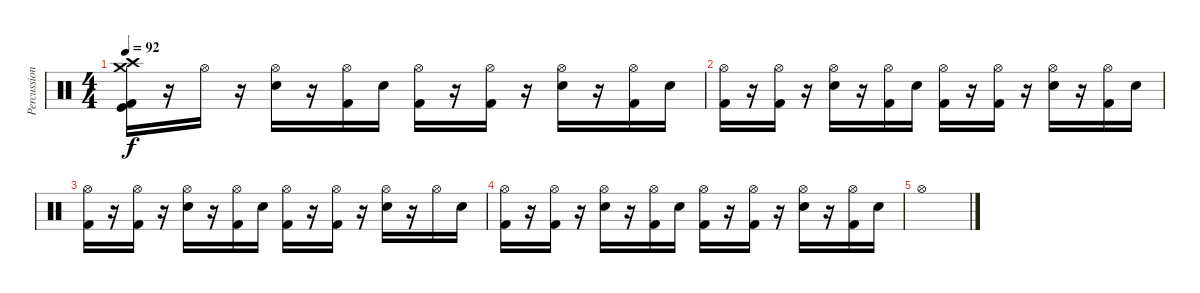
\track ("Percussion" "Percussion") {instrument percussion}
\staff {score}
\articulation defaults
\ts (4 4)
\tempo 92
\clef neutral
\ks c
("Crash high (hit)" "Crash medium (hit)" "Kick (hit)" "Kick (hit) 2").16{dy f} r.16 "Hi-Hat (open)".16 r.16 ("Hi-Hat (open)" "Electric Snare (hit)").16 r.16 ("Hi-Hat (open)" "Kick (hit) 2").16 "Electric Snare (hit)".16 ("Hi-Hat (open)" "Kick (hit) 2").16{volume 11} r.16 ("Hi-Hat (open)" "Kick (hit) 2").16 r.16 ("Hi-Hat (open)" "Electric Snare (hit)").16 r.16 ("Hi-Hat (open)" "Kick (hit) 2").16 "Electric Snare (hit)".16 |
("Hi-Hat (open)" "Kick (hit) 2").16{volume 9} r.16 ("Hi-Hat (open)" "Kick (hit) 2").16 r.16 ("Hi-Hat (open)" "Electric Snare (hit)").16 r.16 ("Hi-Hat (open)" "Kick (hit) 2").16 "Electric Snare (hit)".16 ("Hi-Hat (open)" "Kick (hit) 2").16{volume 7} r.16 ("Hi-Hat (open)" "Kick (hit) 2").16 r.16 ("Hi-Hat (open)" "Electric Snare (hit)").16 r.16 ("Hi-Hat (open)" "Kick (hit) 2").16 "Electric Snare (hit)".16 |
("Hi-Hat (open)" "Kick (hit) 2").16{volume 5} r.16 ("Hi-Hat (open)" "Kick (hit) 2").16 r.16 ("Hi-Hat (open)" "Electric Snare (hit)").16 r.16 ("Hi-Hat (open)" "Kick (hit) 2").16 "Electric Snare (hit)".16 ("Hi-Hat (open)" "Kick (hit) 2").16{volume 3} r.16 ("Hi-Hat (open)" "Kick (hit) 2").16 r.16 ("Hi-Hat (open)" "Electric Snare (hit)").16 r.16 "Hi-Hat (open)".16 "Electric Snare (hit)".16 |
("Hi-Hat (open)" "Kick (hit) 2").16{volume 2} r.16 ("Hi-Hat (open)" "Kick (hit) 2").16 r.16 ("Hi-Hat (open)" "Electric Snare (hit)").16 r.16 ("Hi-Hat (open)" "Kick (hit) 2").16 "Electric Snare (hit)".16 ("Hi-Hat (open)" "Kick (hit) 2").16{volume 1} r.16 ("Hi-Hat (open)" "Kick (hit) 2").16 r.16 ("Hi-Hat (open)" "Electric Snare (hit)").16 r.16 ("Hi-Hat (open)" "Kick (hit) 2").16 "Electric Snare (hit)".16 |
"Hi-Hat (open)".1{volume 0}
